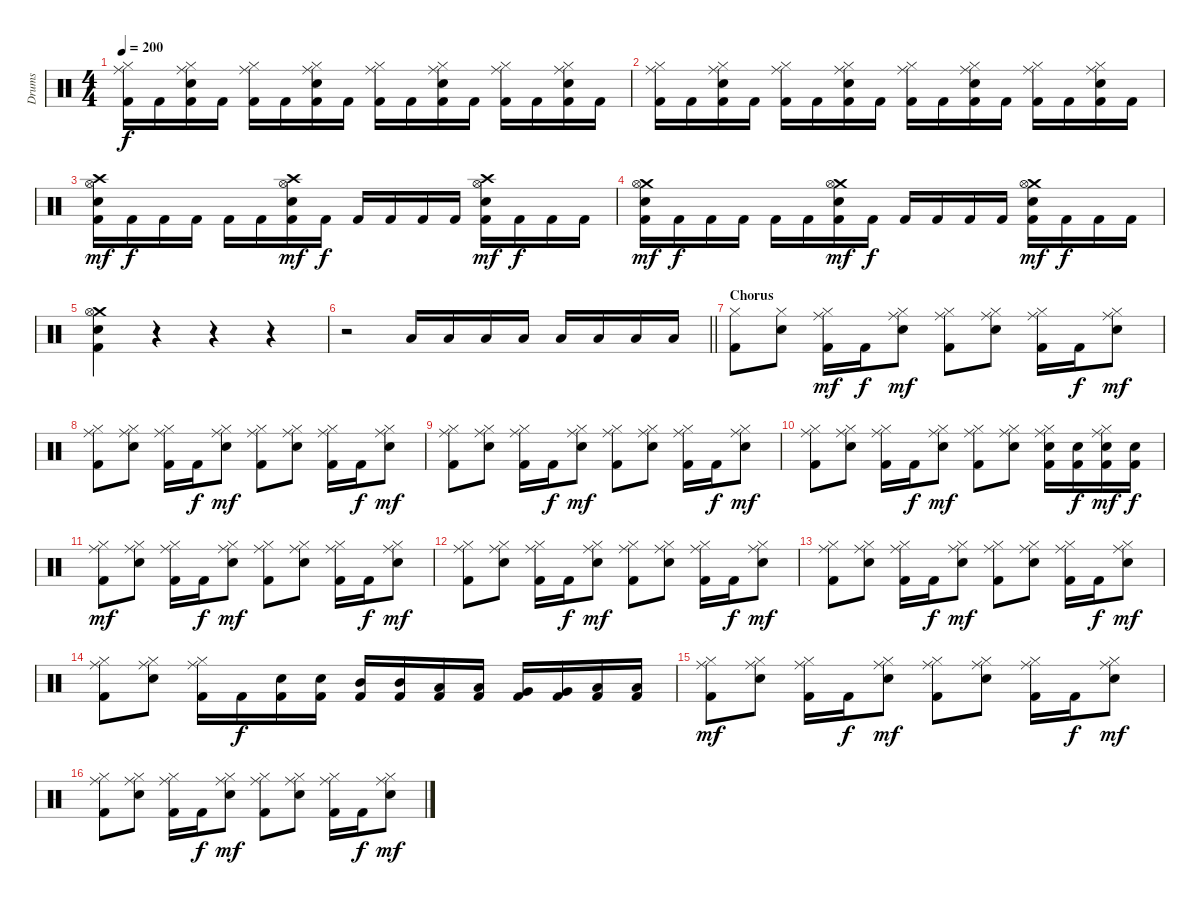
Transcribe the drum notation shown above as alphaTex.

\track ("Drums" "Drums") {instrument percussion}
\staff {score}
\articulation defaults
\ts (4 4)
\tempo 200
\clef neutral
\ks c
("Hi-Hat (closed)" "Ride (middle)" "Kick (hit) 2").16{dy f} "Kick (hit) 2".16 ("Hi-Hat (closed)" "Ride (middle)" "Snare (hit) 2" "Kick (hit) 2").16 "Kick (hit) 2".16 ("Hi-Hat (closed)" "Ride (middle)" "Kick (hit) 2").16 "Kick (hit) 2".16 ("Hi-Hat (closed)" "Ride (middle)" "Snare (hit) 2" "Kick (hit) 2").16 "Kick (hit) 2".16 ("Hi-Hat (closed)" "Ride (middle)" "Kick (hit) 2").16 "Kick (hit) 2".16 ("Hi-Hat (closed)" "Ride (middle)" "Snare (hit) 2" "Kick (hit) 2").16 "Kick (hit) 2".16 ("Hi-Hat (closed)" "Ride (middle)" "Kick (hit) 2").16 "Kick (hit) 2".16 ("Hi-Hat (closed)" "Ride (middle)" "Snare (hit) 2" "Kick (hit) 2").16 "Kick (hit) 2".16 |
("Hi-Hat (closed)" "Ride (middle)" "Kick (hit) 2").16 "Kick (hit) 2".16 ("Hi-Hat (closed)" "Ride (middle)" "Snare (hit) 2" "Kick (hit) 2").16 "Kick (hit) 2".16 ("Hi-Hat (closed)" "Ride (middle)" "Kick (hit) 2").16 "Kick (hit) 2".16 ("Hi-Hat (closed)" "Ride (middle)" "Snare (hit) 2" "Kick (hit) 2").16 "Kick (hit) 2".16 ("Hi-Hat (closed)" "Ride (middle)" "Kick (hit) 2").16 "Kick (hit) 2".16 ("Hi-Hat (closed)" "Ride (middle)" "Snare (hit) 2" "Kick (hit) 2").16 "Kick (hit) 2".16 ("Hi-Hat (closed)" "Ride (middle)" "Kick (hit) 2").16 "Kick (hit) 2".16 ("Hi-Hat (closed)" "Ride (middle)" "Snare (hit) 2" "Kick (hit) 2").16 "Kick (hit) 2".16 |
("Crash high (hit)" "Hi-Hat (open)" "Snare (hit) 2" "Kick (hit) 2").16{dy mf} "Kick (hit) 2".16{dy f} "Kick (hit) 2".16 "Kick (hit) 2".16 "Kick (hit) 2".16 "Kick (hit) 2".16 ("Crash high (hit)" "Hi-Hat (open)" "Snare (hit) 2" "Kick (hit) 2").16{dy mf} "Kick (hit) 2".16{dy f} "Kick (hit) 2".16 "Kick (hit) 2".16 "Kick (hit) 2".16 "Kick (hit) 2".16 ("Crash high (hit)" "Hi-Hat (open)" "Snare (hit) 2" "Kick (hit) 2").16{dy mf} "Kick (hit) 2".16{dy f} "Kick (hit) 2".16 "Kick (hit) 2".16 |
("Crash medium (hit)" "Hi-Hat (open)" "Snare (hit) 2" "Kick (hit) 2").16{dy mf} "Kick (hit) 2".16{dy f} "Kick (hit) 2".16 "Kick (hit) 2".16 "Kick (hit) 2".16 "Kick (hit) 2".16 ("Crash medium (hit)" "Hi-Hat (open)" "Snare (hit) 2" "Kick (hit) 2").16{dy mf} "Kick (hit) 2".16{dy f} "Kick (hit) 2".16 "Kick (hit) 2".16 "Kick (hit) 2".16 "Kick (hit) 2".16 ("Crash medium (hit)" "Hi-Hat (open)" "Snare (hit) 2" "Kick (hit) 2").16{dy mf} "Kick (hit) 2".16{dy f} "Kick (hit) 2".16 "Kick (hit) 2".16 |
("Crash medium (hit)" "Hi-Hat (open)" "Snare (hit) 2" "Kick (hit) 2").4 r.4 r.4 r.4 |
\barLineRight lightlight
r.2 "Low Tom (hit)".16 "Low Tom (hit)".16 "Low Tom (hit)".16 "Low Tom (hit)".16 "Low Floor Tom (hit)".16 "Low Floor Tom (hit)".16 "Low Floor Tom (hit)".16 "Low Floor Tom (hit)".16 |
\section ("" "Chorus")
("Hi-Hat (closed)" "Kick (hit) 2").8 ("Hi-Hat (closed)" "Snare (hit) 2").8 ("Hi-Hat (closed)" "Ride (middle)" "Kick (hit) 2").16{dy mf} "Kick (hit) 2".16{dy f} ("Hi-Hat (closed)" "Ride (middle)" "Snare (hit) 2").8{dy mf} ("Hi-Hat (closed)" "Ride (middle)" "Kick (hit) 2").8 ("Hi-Hat (closed)" "Ride (middle)" "Snare (hit) 2").8 ("Hi-Hat (closed)" "Ride (middle)" "Kick (hit) 2").16 "Kick (hit) 2".16{dy f} ("Hi-Hat (closed)" "Ride (middle)" "Snare (hit) 2").8{dy mf} |
("Hi-Hat (closed)" "Ride (middle)" "Kick (hit) 2").8 ("Hi-Hat (closed)" "Ride (middle)" "Snare (hit) 2").8 ("Hi-Hat (closed)" "Ride (middle)" "Kick (hit) 2").16 "Kick (hit) 2".16{dy f} ("Hi-Hat (closed)" "Ride (middle)" "Snare (hit) 2").8{dy mf} ("Hi-Hat (closed)" "Ride (middle)" "Kick (hit) 2").8 ("Hi-Hat (closed)" "Ride (middle)" "Snare (hit) 2").8 ("Hi-Hat (closed)" "Ride (middle)" "Kick (hit) 2").16 "Kick (hit) 2".16{dy f} ("Hi-Hat (closed)" "Ride (middle)" "Snare (hit) 2").8{dy mf} |
("Hi-Hat (closed)" "Ride (middle)" "Kick (hit) 2").8 ("Hi-Hat (closed)" "Ride (middle)" "Snare (hit) 2").8 ("Hi-Hat (closed)" "Ride (middle)" "Kick (hit) 2").16 "Kick (hit) 2".16{dy f} ("Hi-Hat (closed)" "Ride (middle)" "Snare (hit) 2").8{dy mf} ("Hi-Hat (closed)" "Ride (middle)" "Kick (hit) 2").8 ("Hi-Hat (closed)" "Ride (middle)" "Snare (hit) 2").8 ("Hi-Hat (closed)" "Ride (middle)" "Kick (hit) 2").16 "Kick (hit) 2".16{dy f} ("Hi-Hat (closed)" "Ride (middle)" "Snare (hit) 2").8{dy mf} |
("Hi-Hat (closed)" "Ride (middle)" "Kick (hit) 2").8 ("Hi-Hat (closed)" "Ride (middle)" "Snare (hit) 2").8 ("Hi-Hat (closed)" "Ride (middle)" "Kick (hit) 2").16 "Kick (hit) 2".16{dy f} ("Hi-Hat (closed)" "Ride (middle)" "Snare (hit) 2").8{dy mf} ("Hi-Hat (closed)" "Ride (middle)" "Kick (hit) 2").8 ("Hi-Hat (closed)" "Ride (middle)" "Snare (hit) 2").8 ("Hi-Hat (closed)" "Ride (middle)" "Snare (hit) 2" "Kick (hit) 2").16 ("Snare (hit) 2" "Kick (hit) 2").16{dy f} ("Hi-Hat (closed)" "Ride (middle)" "Snare (hit) 2" "Kick (hit) 2").16{dy mf} ("Snare (hit) 2" "Kick (hit) 2").16{dy f} |
("Hi-Hat (closed)" "Ride (middle)" "Kick (hit) 2").8{dy mf} ("Hi-Hat (closed)" "Ride (middle)" "Snare (hit) 2").8 ("Hi-Hat (closed)" "Ride (middle)" "Kick (hit) 2").16 "Kick (hit) 2".16{dy f} ("Hi-Hat (closed)" "Ride (middle)" "Snare (hit) 2").8{dy mf} ("Hi-Hat (closed)" "Ride (middle)" "Kick (hit) 2").8 ("Hi-Hat (closed)" "Ride (middle)" "Snare (hit) 2").8 ("Hi-Hat (closed)" "Ride (middle)" "Kick (hit) 2").16 "Kick (hit) 2".16{dy f} ("Hi-Hat (closed)" "Ride (middle)" "Snare (hit) 2").8{dy mf} |
("Hi-Hat (closed)" "Ride (middle)" "Kick (hit) 2").8 ("Hi-Hat (closed)" "Ride (middle)" "Snare (hit) 2").8 ("Hi-Hat (closed)" "Ride (middle)" "Kick (hit) 2").16 "Kick (hit) 2".16{dy f} ("Hi-Hat (closed)" "Ride (middle)" "Snare (hit) 2").8{dy mf} ("Hi-Hat (closed)" "Ride (middle)" "Kick (hit) 2").8 ("Hi-Hat (closed)" "Ride (middle)" "Snare (hit) 2").8 ("Hi-Hat (closed)" "Ride (middle)" "Kick (hit) 2").16 "Kick (hit) 2".16{dy f} ("Hi-Hat (closed)" "Ride (middle)" "Snare (hit) 2").8{dy mf} |
("Hi-Hat (closed)" "Ride (middle)" "Kick (hit) 2").8 ("Hi-Hat (closed)" "Ride (middle)" "Snare (hit) 2").8 ("Hi-Hat (closed)" "Ride (middle)" "Kick (hit) 2").16 "Kick (hit) 2".16{dy f} ("Hi-Hat (closed)" "Ride (middle)" "Snare (hit) 2").8{dy mf} ("Hi-Hat (closed)" "Ride (middle)" "Kick (hit) 2").8 ("Hi-Hat (closed)" "Ride (middle)" "Snare (hit) 2").8 ("Hi-Hat (closed)" "Ride (middle)" "Kick (hit) 2").16 "Kick (hit) 2".16{dy f} ("Hi-Hat (closed)" "Ride (middle)" "Snare (hit) 2").8{dy mf} |
("Hi-Hat (closed)" "Ride (middle)" "Kick (hit) 2").8 ("Hi-Hat (closed)" "Ride (middle)" "Snare (hit) 2").8 ("Hi-Hat (closed)" "Ride (middle)" "Kick (hit) 2").16 "Kick (hit) 2".16{dy f} ("Snare (hit) 2" "Kick (hit) 2").16 ("Snare (hit) 2" "Kick (hit) 2").16 ("Mid Tom (hit)" "Kick (hit) 2").16 ("Mid Tom (hit)" "Kick (hit) 2").16 ("Low Tom (hit)" "Kick (hit) 2").16 ("Low Tom (hit)" "Kick (hit) 2").16 ("Very Low Tom (hit)" "Kick (hit) 2").16 ("Very Low Tom (hit)" "Kick (hit) 2").16 ("Low Floor Tom (hit)" "Kick (hit) 2").16 ("Low Floor Tom (hit)" "Kick (hit) 2").16 |
("Hi-Hat (closed)" "Ride (middle)" "Kick (hit) 2").8{dy mf} ("Hi-Hat (closed)" "Ride (middle)" "Snare (hit) 2").8 ("Hi-Hat (closed)" "Ride (middle)" "Kick (hit) 2").16 "Kick (hit) 2".16{dy f} ("Hi-Hat (closed)" "Ride (middle)" "Snare (hit) 2").8{dy mf} ("Hi-Hat (closed)" "Ride (middle)" "Kick (hit) 2").8 ("Hi-Hat (closed)" "Ride (middle)" "Snare (hit) 2").8 ("Hi-Hat (closed)" "Ride (middle)" "Kick (hit) 2").16 "Kick (hit) 2".16{dy f} ("Hi-Hat (closed)" "Ride (middle)" "Snare (hit) 2").8{dy mf} |
("Hi-Hat (closed)" "Ride (middle)" "Kick (hit) 2").8 ("Hi-Hat (closed)" "Ride (middle)" "Snare (hit) 2").8 ("Hi-Hat (closed)" "Ride (middle)" "Kick (hit) 2").16 "Kick (hit) 2".16{dy f} ("Hi-Hat (closed)" "Ride (middle)" "Snare (hit) 2").8{dy mf} ("Hi-Hat (closed)" "Ride (middle)" "Kick (hit) 2").8 ("Hi-Hat (closed)" "Ride (middle)" "Snare (hit) 2").8 ("Hi-Hat (closed)" "Ride (middle)" "Kick (hit) 2").16 "Kick (hit) 2".16{dy f} ("Hi-Hat (closed)" "Ride (middle)" "Snare (hit) 2").8{dy mf}
